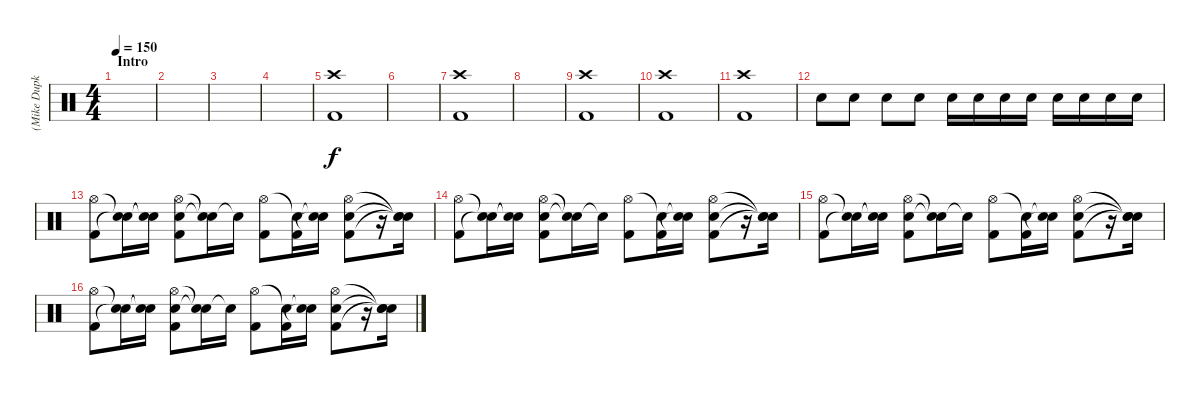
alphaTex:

\track ("(Mike Dupke) Drums" "(Mike Dupk") {instrument percussion}
\staff {score}
\articulation defaults
\ts (4 4)
\section ("" "Intro")
\tempo 150
\clef neutral
\ks c
|
|
|
|
("Crash high (hit)" "Kick (hit) 2").1 |
|
("Crash high (hit)" "Kick (hit) 2").1 |
|
("Crash high (hit)" "Kick (hit) 2").1 |
("Crash high (hit)" "Kick (hit) 2").1 |
("Crash high (hit)" "Kick (hit) 2").1 |
"Snare (hit) 2".8 "Snare (hit) 2".8 "Snare (hit) 2".8 "Snare (hit) 2".8 "Snare (hit) 2".16 "Snare (hit) 2".16 "Snare (hit) 2".16 "Snare (hit) 2".16 "Snare (hit) 2".16 "Snare (hit) 2".16 "Snare (hit) 2".16 "Snare (hit) 2".16 |
("Hi-Hat (open)" "Kick (hit) 2").8 ("Snare (hit)"{t} "Snare (hit)"{t}).16 ("Snare (hit)"{t} "Snare (hit)"{t}).16 ("Hi-Hat (open)" "Snare (hit) 2" "Kick (hit) 2").8 ("Snare (hit)"{t} "Snare (hit)"{t}).16 "Snare (hit)"{t}.16 ("Hi-Hat (open)" "Kick (hit) 2").8 ("Snare (hit)"{t} "Kick (hit) 2").16 ("Snare (hit)"{t} "Snare (hit)"{t}).16 ("Hi-Hat (open)" "Snare (hit) 2" "Kick (hit) 2").8 r.16 ("Snare (hit)"{t} "Snare (hit)"{t} "Snare (hit)"{t}).16 |
("Hi-Hat (open)" "Kick (hit) 2").8 ("Snare (hit)"{t} "Snare (hit)"{t}).16 ("Snare (hit)"{t} "Snare (hit)"{t}).16 ("Hi-Hat (open)" "Snare (hit) 2" "Kick (hit) 2").8 ("Snare (hit)"{t} "Snare (hit)"{t}).16 "Snare (hit)"{t}.16 ("Hi-Hat (open)" "Kick (hit) 2").8 ("Snare (hit)"{t} "Kick (hit) 2").16 ("Snare (hit)"{t} "Snare (hit)"{t}).16 ("Hi-Hat (open)" "Snare (hit) 2" "Kick (hit) 2").8 r.16 ("Snare (hit)"{t} "Snare (hit)"{t} "Snare (hit)"{t}).16 |
("Hi-Hat (open)" "Kick (hit) 2").8 ("Snare (hit)"{t} "Snare (hit)"{t}).16 ("Snare (hit)"{t} "Snare (hit)"{t}).16 ("Hi-Hat (open)" "Snare (hit) 2" "Kick (hit) 2").8 ("Snare (hit)"{t} "Snare (hit)"{t}).16 "Snare (hit)"{t}.16 ("Hi-Hat (open)" "Kick (hit) 2").8 ("Snare (hit)"{t} "Kick (hit) 2").16 ("Snare (hit)"{t} "Snare (hit)"{t}).16 ("Hi-Hat (open)" "Snare (hit) 2" "Kick (hit) 2").8 r.16 ("Snare (hit)"{t} "Snare (hit)"{t} "Snare (hit)"{t}).16 |
("Hi-Hat (open)" "Kick (hit) 2").8 ("Snare (hit)"{t} "Snare (hit)"{t}).16 ("Snare (hit)"{t} "Snare (hit)"{t}).16 ("Hi-Hat (open)" "Snare (hit) 2" "Kick (hit) 2").8 ("Snare (hit)"{t} "Snare (hit)"{t}).16 "Snare (hit)"{t}.16 ("Hi-Hat (open)" "Kick (hit) 2").8 ("Snare (hit)"{t} "Kick (hit) 2").16 ("Snare (hit)"{t} "Snare (hit)"{t}).16 ("Hi-Hat (open)" "Snare (hit) 2" "Kick (hit) 2").8 r.16 ("Snare (hit)"{t} "Snare (hit)"{t} "Snare (hit)"{t}).16
